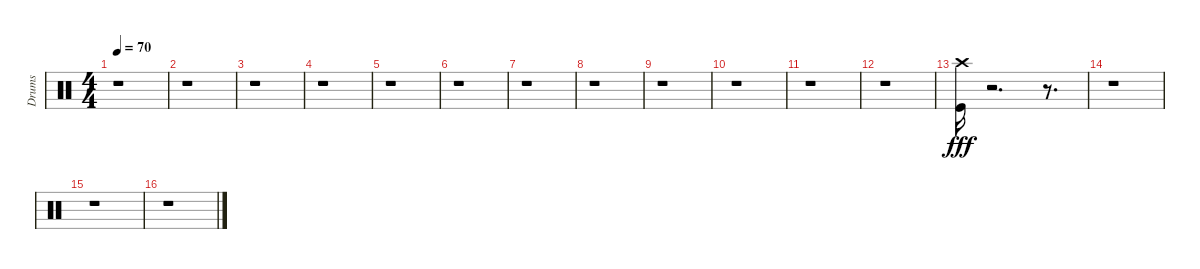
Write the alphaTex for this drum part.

\track ("Drums" "Drums") {instrument percussion}
\staff {score}
\articulation defaults
\ts (4 4)
\tempo 70
\clef neutral
\ks c
r.1{dy fff} |
r.1 |
r.1 |
r.1 |
r.1 |
r.1 |
r.1 |
r.1 |
r.1 |
r.1 |
r.1 |
r.1 |
("Crash high (hit)" "Kick (hit)").16 r.2{d} r.8{d} |
r.1 |
r.1 |
r.1
